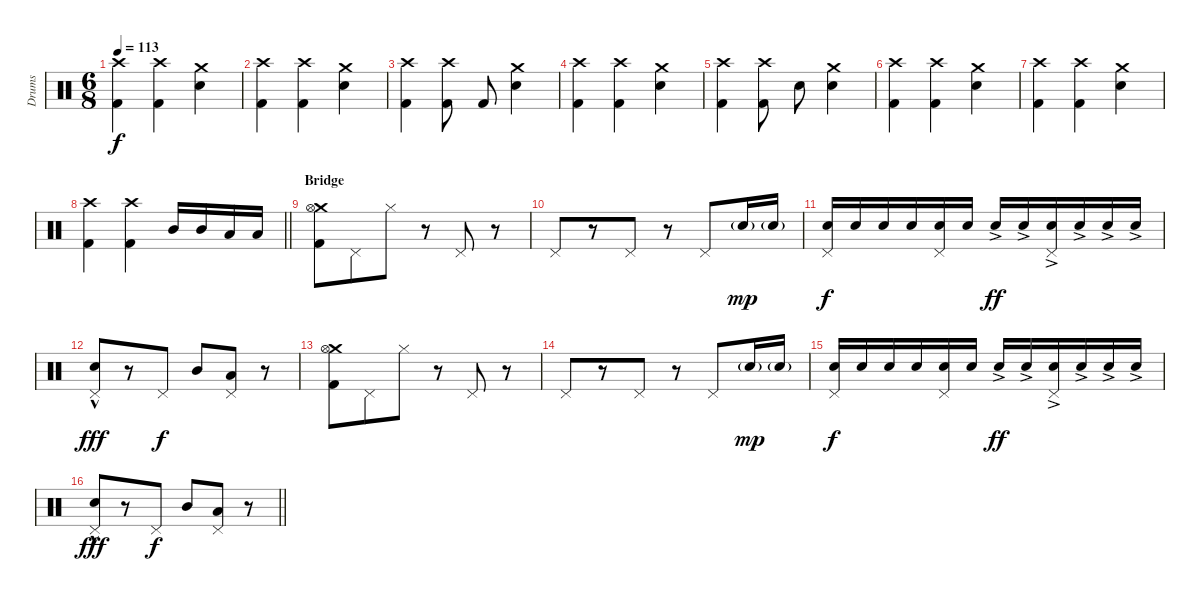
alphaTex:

\track ("Drums" "Drums") {instrument percussion}
\staff {score}
\articulation defaults
\ts (6 8)
\tempo 113
\clef neutral
\ks c
("Crash high (hit)" "Kick (hit) 2").4{dy f} ("Crash high (hit)" "Kick (hit) 2").4 ("Crash medium (hit)" "Electric Snare (hit)").4 |
("Crash high (hit)" "Kick (hit) 2").4 ("Crash high (hit)" "Kick (hit) 2").4 ("Crash medium (hit)" "Electric Snare (hit)").4 |
("Crash high (hit)" "Kick (hit) 2").4 ("Crash high (hit)" "Kick (hit) 2").8 "Kick (hit) 2".8 ("Crash medium (hit)" "Electric Snare (hit)").4 |
("Crash high (hit)" "Kick (hit) 2").4 ("Crash high (hit)" "Kick (hit) 2").4 ("Crash medium (hit)" "Electric Snare (hit)").4 |
("Crash high (hit)" "Kick (hit) 2").4 ("Crash high (hit)" "Kick (hit) 2").8 "Electric Snare (hit)".8 ("Crash medium (hit)" "Electric Snare (hit)").4 |
("Crash high (hit)" "Kick (hit) 2").4 ("Crash high (hit)" "Kick (hit) 2").4 ("Crash medium (hit)" "Electric Snare (hit)").4 |
("Crash high (hit)" "Kick (hit) 2").4 ("Crash high (hit)" "Kick (hit) 2").4 ("Crash medium (hit)" "Electric Snare (hit)").4 |
\barLineRight lightlight
("Crash high (hit)" "Kick (hit) 2").4 ("Crash high (hit)" "Kick (hit) 2").4 "Mid Tom (hit)".16 "Mid Tom (hit)".16 "Low Tom (hit)".16 "Low Tom (hit)".16 |
\section ("" "Bridge")
("Crash medium (hit)" "Hi-Hat (open)" "Kick (hit) 2").8 "Pedal Hi-Hat (hit)".8 "Hi-Hat (closed)".8 r.8 "Pedal Hi-Hat (hit)".8 r.8 |
"Pedal Hi-Hat (hit)".8 r.8 "Pedal Hi-Hat (hit)".8 r.8 "Pedal Hi-Hat (hit)".8 "Electric Snare (hit)"{g}.16{dy mp} "Electric Snare (hit)"{g}.16 |
("Pedal Hi-Hat (hit)" "Electric Snare (hit)").16{dy f} "Electric Snare (hit)".16 "Electric Snare (hit)".16 "Electric Snare (hit)".16 ("Pedal Hi-Hat (hit)" "Electric Snare (hit)").16 "Electric Snare (hit)".16 "Electric Snare (hit)"{ac}.16{dy ff} "Electric Snare (hit)"{ac}.16 ("Pedal Hi-Hat (hit)" "Electric Snare (hit)"{ac}).16 "Electric Snare (hit)"{ac}.16 "Electric Snare (hit)"{ac}.16 "Electric Snare (hit)"{ac}.16 |
("Pedal Hi-Hat (hit)" "Electric Snare (hit)"{hac}).8{dy fff} r.8 "Pedal Hi-Hat (hit)".8{dy f} "Mid Tom (hit)".8 ("Pedal Hi-Hat (hit)" "Low Tom (hit)").8 r.8 |
("Crash medium (hit)" "Hi-Hat (open)" "Kick (hit) 2").8 "Pedal Hi-Hat (hit)".8 "Hi-Hat (closed)".8 r.8 "Pedal Hi-Hat (hit)".8 r.8 |
"Pedal Hi-Hat (hit)".8 r.8 "Pedal Hi-Hat (hit)".8 r.8 "Pedal Hi-Hat (hit)".8 "Electric Snare (hit)"{g}.16{dy mp} "Electric Snare (hit)"{g}.16 |
("Pedal Hi-Hat (hit)" "Electric Snare (hit)").16{dy f} "Electric Snare (hit)".16 "Electric Snare (hit)".16 "Electric Snare (hit)".16 ("Pedal Hi-Hat (hit)" "Electric Snare (hit)").16 "Electric Snare (hit)".16 "Electric Snare (hit)"{ac}.16{dy ff} "Electric Snare (hit)"{ac}.16 ("Pedal Hi-Hat (hit)" "Electric Snare (hit)"{ac}).16 "Electric Snare (hit)"{ac}.16 "Electric Snare (hit)"{ac}.16 "Electric Snare (hit)"{ac}.16 |
\barLineRight lightlight
("Pedal Hi-Hat (hit)" "Electric Snare (hit)"{hac}).8{dy fff} r.8 "Pedal Hi-Hat (hit)".8{dy f} "Mid Tom (hit)".8 ("Pedal Hi-Hat (hit)" "Low Tom (hit)").8 r.8
